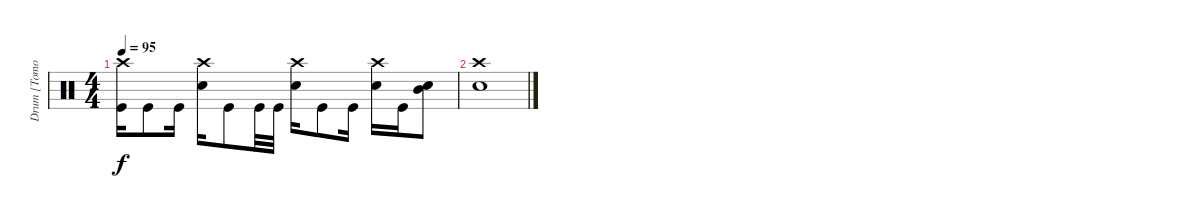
\track ("Drum [Tomoya]" "Drum [Tomo") {instrument percussion}
\staff {score}
\articulation defaults
\ts (4 4)
\tempo 95
\clef neutral
\ks c
("Crash high (hit)" "Kick (hit)").16{dy f} "Kick (hit)".8 "Kick (hit)".16 ("Crash high (hit)" "Snare (hit) 2").16 "Kick (hit)".8 "Kick (hit)".32 "Kick (hit)".32 ("Crash high (hit)" "Snare (hit) 2").16 "Kick (hit)".8 "Kick (hit)".16 ("Crash high (hit)" "Snare (hit) 2").16 "Kick (hit)".16 ("Mid Tom (hit)" "Snare (hit) 2").8 |
("Crash high (hit)" "Snare (hit) 2").1
